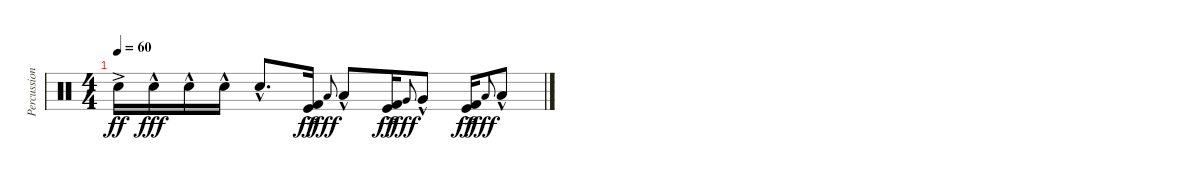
\track ("Percussion" "Percussion") {instrument percussion}
\staff {score}
\articulation defaults
\ts (4 4)
\tempo 60
\clef neutral
\ks c "Snare (hit) 2"{ac}.16{dy ff} "Snare (hit) 2"{hac}.16{dy fff} "Snare (hit) 2"{hac}.16 "Snare (hit) 2"{hac}.16 "Snare (hit) 2"{hac}.8{d}
("Kick (hit)"{ac} "Kick (hit) 2"{ac}).16{dy ff} "Low Tom (hit)".8{gr onbeat dy fff} "Low Tom (hit)"{hac}.8 ("Kick (hit)"{ac} "Kick (hit) 2"{ac}).16{dy ff} "Very Low Tom (hit)".8{gr onbeat dy fff} "Very Low Tom (hit)"{hac}.8 ("Kick (hit)"{ac} "Kick (hit) 2"{ac}).16{dy ff} "Low Floor Tom (hit)".8{gr onbeat dy fff} "Low Floor Tom (hit)"{hac}.8
